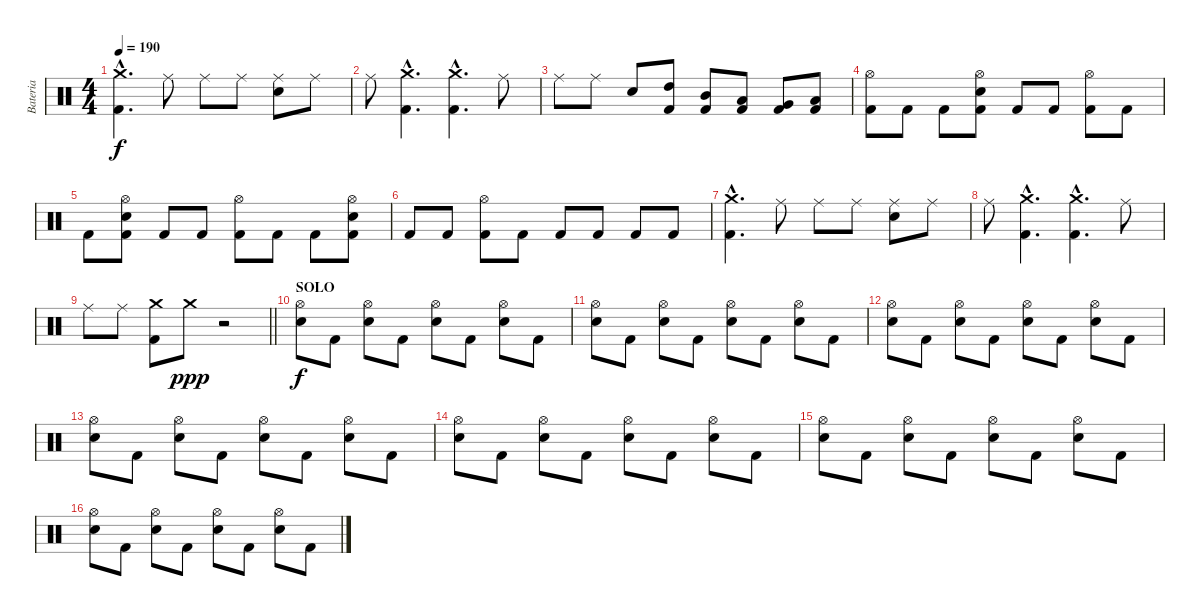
\track ("Bateria" "Bateria") {instrument percussion}
\staff {score}
\articulation defaults
\ts (4 4)
\tempo 190
\clef neutral
\ks c
("Crash medium (hit)"{hac} "Kick (hit) 2"{hac}).4{d dy f} "Ride (middle)".8 "Ride (middle)".8 "Ride (middle)".8 ("Ride (middle)" "Electric Snare (hit)").8 "Ride (middle)".8 |
"Ride (middle)".8 ("Crash medium (hit)"{hac} "Kick (hit) 2"{hac}).4{d} ("Crash medium (hit)"{hac} "Kick (hit) 2"{hac}).4{d} "Ride (middle)".8 |
"Ride (middle)".8 "Ride (middle)".8 "Electric Snare (hit)".8 ("High Tom (hit)" "Kick (hit) 2").8 ("Mid Tom (hit)" "Kick (hit) 2").8 ("Low Tom (hit)" "Kick (hit) 2").8 ("Very Low Tom (hit)" "Kick (hit) 2").8 ("Low Floor Tom (hit)" "Kick (hit) 2").8 |
("Hi-Hat (open)" "Kick (hit) 2").8 "Kick (hit) 2".8 "Kick (hit) 2".8 ("Hi-Hat (open)" "Electric Snare (hit)" "Kick (hit) 2").8 "Kick (hit) 2".8 "Kick (hit) 2".8 ("Hi-Hat (open)" "Kick (hit) 2").8 "Kick (hit) 2".8 |
"Kick (hit) 2".8 ("Hi-Hat (open)" "Electric Snare (hit)" "Kick (hit) 2").8 "Kick (hit) 2".8 "Kick (hit) 2".8 ("Hi-Hat (open)" "Kick (hit) 2").8 "Kick (hit) 2".8 "Kick (hit) 2".8 ("Hi-Hat (open)" "Electric Snare (hit)" "Kick (hit) 2").8 |
"Kick (hit) 2".8 "Kick (hit) 2".8 ("Hi-Hat (open)" "Kick (hit) 2").8 "Kick (hit) 2".8 "Kick (hit) 2".8 "Kick (hit) 2".8 "Kick (hit) 2".8 "Kick (hit) 2".8 |
("Crash medium (hit)"{hac} "Kick (hit) 2"{hac}).4{d} "Ride (middle)".8 "Ride (middle)".8 "Ride (middle)".8 ("Ride (middle)" "Electric Snare (hit)").8 "Ride (middle)".8 |
"Ride (middle)".8 ("Crash medium (hit)"{hac} "Kick (hit) 2"{hac}).4{d} ("Crash medium (hit)"{hac} "Kick (hit) 2"{hac}).4{d} "Ride (middle)".8 |
\barLineRight lightlight "Ride (middle)".8 "Ride (middle)".8
("Crash medium (hit)" "Kick (hit) 2").8 "Crash medium (hit)".8{dy ppp} r.2 |
\section ("" "SOLO")
("Hi-Hat (open)" "Electric Snare (hit)").8{dy f} "Kick (hit) 2".8 ("Hi-Hat (open)" "Electric Snare (hit)").8 "Kick (hit) 2".8 ("Hi-Hat (open)" "Electric Snare (hit)").8 "Kick (hit) 2".8 ("Hi-Hat (open)" "Electric Snare (hit)").8 "Kick (hit) 2".8 |
("Hi-Hat (open)" "Electric Snare (hit)").8 "Kick (hit) 2".8 ("Hi-Hat (open)" "Electric Snare (hit)").8 "Kick (hit) 2".8 ("Hi-Hat (open)" "Electric Snare (hit)").8 "Kick (hit) 2".8 ("Hi-Hat (open)" "Electric Snare (hit)").8 "Kick (hit) 2".8 |
("Hi-Hat (open)" "Electric Snare (hit)").8 "Kick (hit) 2".8 ("Hi-Hat (open)" "Electric Snare (hit)").8 "Kick (hit) 2".8 ("Hi-Hat (open)" "Electric Snare (hit)").8 "Kick (hit) 2".8 ("Hi-Hat (open)" "Electric Snare (hit)").8 "Kick (hit) 2".8 |
("Hi-Hat (open)" "Electric Snare (hit)").8 "Kick (hit) 2".8 ("Hi-Hat (open)" "Electric Snare (hit)").8 "Kick (hit) 2".8 ("Hi-Hat (open)" "Electric Snare (hit)").8 "Kick (hit) 2".8 ("Hi-Hat (open)" "Electric Snare (hit)").8 "Kick (hit) 2".8 |
("Hi-Hat (open)" "Electric Snare (hit)").8 "Kick (hit) 2".8 ("Hi-Hat (open)" "Electric Snare (hit)").8 "Kick (hit) 2".8 ("Hi-Hat (open)" "Electric Snare (hit)").8 "Kick (hit) 2".8 ("Hi-Hat (open)" "Electric Snare (hit)").8 "Kick (hit) 2".8 |
("Hi-Hat (open)" "Electric Snare (hit)").8 "Kick (hit) 2".8 ("Hi-Hat (open)" "Electric Snare (hit)").8 "Kick (hit) 2".8 ("Hi-Hat (open)" "Electric Snare (hit)").8 "Kick (hit) 2".8 ("Hi-Hat (open)" "Electric Snare (hit)").8 "Kick (hit) 2".8 |
("Hi-Hat (open)" "Electric Snare (hit)").8 "Kick (hit) 2".8 ("Hi-Hat (open)" "Electric Snare (hit)").8 "Kick (hit) 2".8 ("Hi-Hat (open)" "Electric Snare (hit)").8 "Kick (hit) 2".8 ("Hi-Hat (open)" "Electric Snare (hit)").8 "Kick (hit) 2".8
